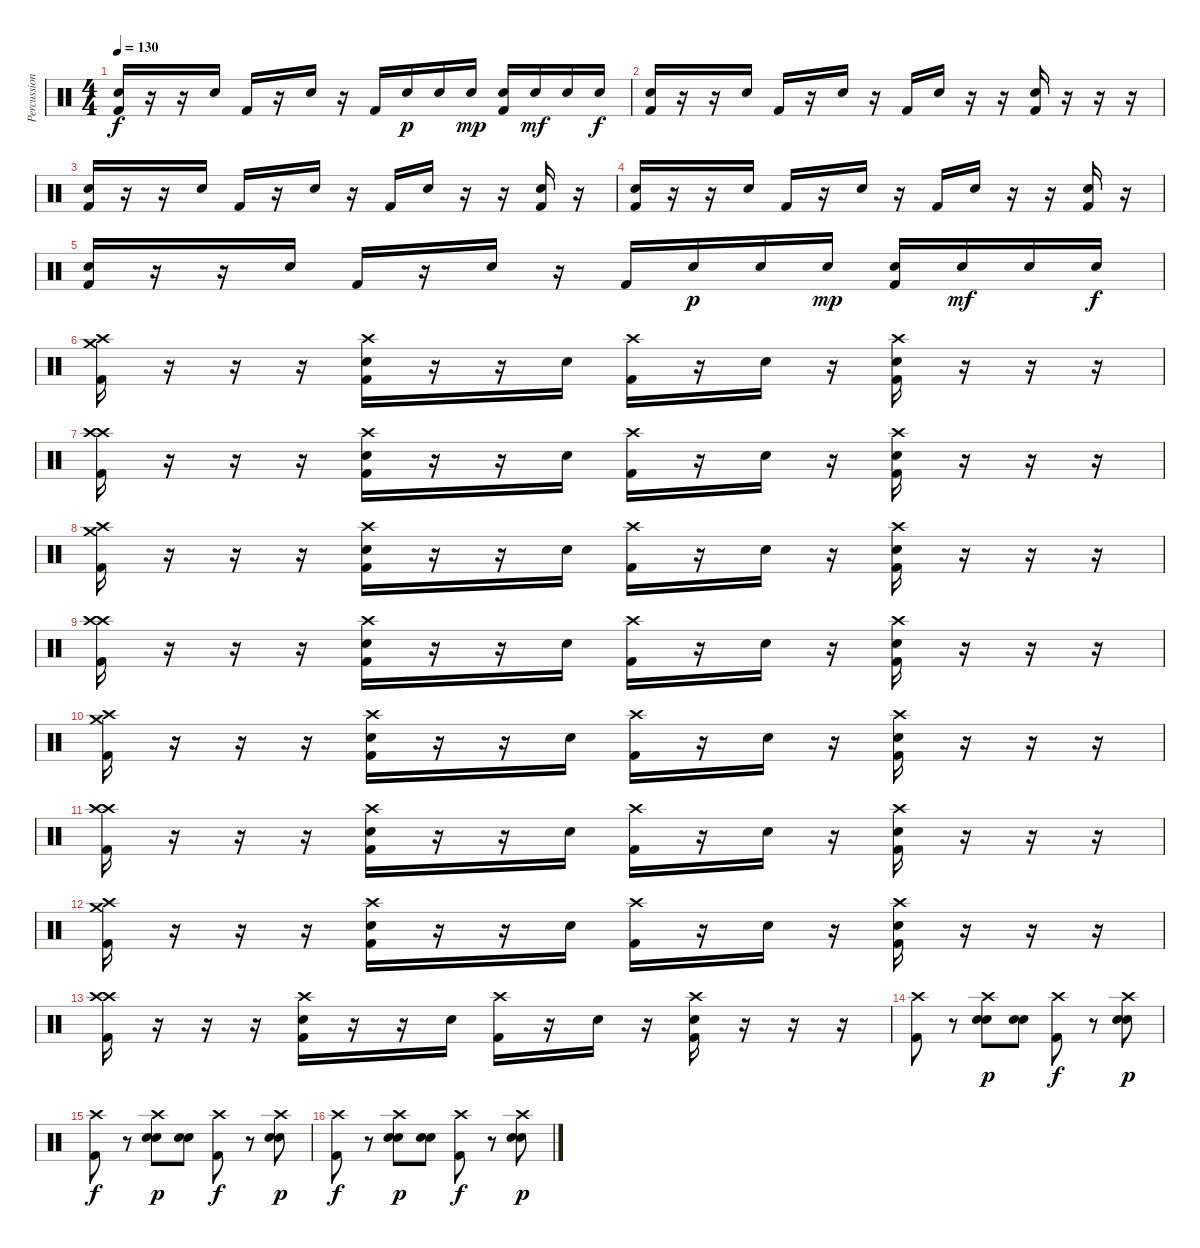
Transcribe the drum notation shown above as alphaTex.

\track ("Percussion" "Percussion") {instrument percussion}
\staff {score}
\articulation defaults
\ts (4 4)
\tempo 130
\clef neutral
\ks c
("Electric Snare (hit)" "Kick (hit) 2").16{dy f} r.16 r.16 "Electric Snare (hit)".16 "Kick (hit) 2".16 r.16 "Electric Snare (hit)".16 r.16 "Kick (hit) 2".16 "Electric Snare (hit)".16{dy p} "Electric Snare (hit)".16 "Electric Snare (hit)".16{dy mp} ("Electric Snare (hit)" "Kick (hit) 2").16 "Electric Snare (hit)".16{dy mf} "Electric Snare (hit)".16 "Electric Snare (hit)".16{dy f} |
("Electric Snare (hit)" "Kick (hit) 2").16 r.16 r.16 "Electric Snare (hit)".16 "Kick (hit) 2".16 r.16 "Electric Snare (hit)".16 r.16 "Kick (hit) 2".16 "Electric Snare (hit)".16 r.16 r.16 ("Electric Snare (hit)" "Kick (hit) 2").16 r.16 r.16 r.16 |
("Electric Snare (hit)" "Kick (hit) 2").16 r.16 r.16 "Electric Snare (hit)".16 "Kick (hit) 2".16 r.16 "Electric Snare (hit)".16 r.16 "Kick (hit) 2".16 "Electric Snare (hit)".16 r.16 r.16 ("Electric Snare (hit)" "Kick (hit) 2").16 r.16 |
("Electric Snare (hit)" "Kick (hit) 2").16 r.16 r.16 "Electric Snare (hit)".16 "Kick (hit) 2".16 r.16 "Electric Snare (hit)".16 r.16 "Kick (hit) 2".16 "Electric Snare (hit)".16 r.16 r.16 ("Electric Snare (hit)" "Kick (hit) 2").16 r.16 |
("Electric Snare (hit)" "Kick (hit) 2").16 r.16 r.16 "Electric Snare (hit)".16 "Kick (hit) 2".16 r.16 "Electric Snare (hit)".16 r.16 "Kick (hit) 2".16 "Electric Snare (hit)".16{dy p} "Electric Snare (hit)".16 "Electric Snare (hit)".16{dy mp} ("Electric Snare (hit)" "Kick (hit) 2").16 "Electric Snare (hit)".16{dy mf} "Electric Snare (hit)".16 "Electric Snare (hit)".16{dy f} |
("Crash medium (hit)" "Crash high (hit)" "Kick (hit) 2").16 r.16 r.16 r.16 ("Crash high (hit)" "Electric Snare (hit)" "Kick (hit) 2").16 r.16 r.16 "Electric Snare (hit)".16 ("Crash high (hit)" "Kick (hit) 2").16 r.16 "Electric Snare (hit)".16 r.16 ("Crash high (hit)" "Electric Snare (hit)" "Kick (hit) 2").16 r.16 r.16 r.16 |
("Crash high (hit)" "Crash high (hit)" "Kick (hit) 2").16 r.16 r.16 r.16 ("Crash high (hit)" "Electric Snare (hit)" "Kick (hit) 2").16 r.16 r.16 "Electric Snare (hit)".16 ("Crash high (hit)" "Kick (hit) 2").16 r.16 "Electric Snare (hit)".16 r.16 ("Crash high (hit)" "Electric Snare (hit)" "Kick (hit) 2").16 r.16 r.16 r.16 |
("Crash medium (hit)" "Crash high (hit)" "Kick (hit) 2").16 r.16 r.16 r.16 ("Crash high (hit)" "Electric Snare (hit)" "Kick (hit) 2").16 r.16 r.16 "Electric Snare (hit)".16 ("Crash high (hit)" "Kick (hit) 2").16 r.16 "Electric Snare (hit)".16 r.16 ("Crash high (hit)" "Electric Snare (hit)" "Kick (hit) 2").16 r.16 r.16 r.16 |
("Crash high (hit)" "Crash high (hit)" "Kick (hit) 2").16 r.16 r.16 r.16 ("Crash high (hit)" "Electric Snare (hit)" "Kick (hit) 2").16 r.16 r.16 "Electric Snare (hit)".16 ("Crash high (hit)" "Kick (hit) 2").16 r.16 "Electric Snare (hit)".16 r.16 ("Crash high (hit)" "Electric Snare (hit)" "Kick (hit) 2").16 r.16 r.16 r.16 |
("Crash medium (hit)" "Crash high (hit)" "Kick (hit) 2").16 r.16 r.16 r.16 ("Crash high (hit)" "Electric Snare (hit)" "Kick (hit) 2").16 r.16 r.16 "Electric Snare (hit)".16 ("Crash high (hit)" "Kick (hit) 2").16 r.16 "Electric Snare (hit)".16 r.16 ("Crash high (hit)" "Electric Snare (hit)" "Kick (hit) 2").16 r.16 r.16 r.16 |
("Crash high (hit)" "Crash high (hit)" "Kick (hit) 2").16 r.16 r.16 r.16 ("Crash high (hit)" "Electric Snare (hit)" "Kick (hit) 2").16 r.16 r.16 "Electric Snare (hit)".16 ("Crash high (hit)" "Kick (hit) 2").16 r.16 "Electric Snare (hit)".16 r.16 ("Crash high (hit)" "Electric Snare (hit)" "Kick (hit) 2").16 r.16 r.16 r.16 |
("Crash medium (hit)" "Crash high (hit)" "Kick (hit) 2").16 r.16 r.16 r.16 ("Crash high (hit)" "Electric Snare (hit)" "Kick (hit) 2").16 r.16 r.16 "Electric Snare (hit)".16 ("Crash high (hit)" "Kick (hit) 2").16 r.16 "Electric Snare (hit)".16 r.16 ("Crash high (hit)" "Electric Snare (hit)" "Kick (hit) 2").16 r.16 r.16 r.16 |
("Crash high (hit)" "Crash high (hit)" "Kick (hit) 2").16 r.16 r.16 r.16 ("Crash high (hit)" "Electric Snare (hit)" "Kick (hit) 2").16 r.16 r.16 "Electric Snare (hit)".16 ("Crash high (hit)" "Kick (hit) 2").16 r.16 "Electric Snare (hit)".16 r.16 ("Crash high (hit)" "Electric Snare (hit)" "Kick (hit) 2").16 r.16 r.16 r.16 |
("Kick (hit) 2" "Crash high (hit)").8 r.8 ("Electric Snare (hit)" "Crash high (hit)" "Snare (hit) 2").8{dy p} ("Electric Snare (hit)" "Snare (hit) 2").8 ("Kick (hit) 2" "Crash high (hit)").8{dy f} r.8 ("Electric Snare (hit)" "Crash high (hit)" "Snare (hit) 2").8{dy p} |
("Kick (hit) 2" "Crash high (hit)").8{dy f} r.8 ("Electric Snare (hit)" "Crash high (hit)" "Snare (hit) 2").8{dy p} ("Electric Snare (hit)" "Snare (hit) 2").8 ("Kick (hit) 2" "Crash high (hit)").8{dy f} r.8 ("Electric Snare (hit)" "Crash high (hit)" "Snare (hit) 2").8{dy p} |
("Kick (hit) 2" "Crash high (hit)").8{dy f} r.8 ("Electric Snare (hit)" "Crash high (hit)" "Snare (hit) 2").8{dy p} ("Electric Snare (hit)" "Snare (hit) 2").8 ("Kick (hit) 2" "Crash high (hit)").8{dy f} r.8 ("Electric Snare (hit)" "Crash high (hit)" "Snare (hit) 2").8{dy p}
